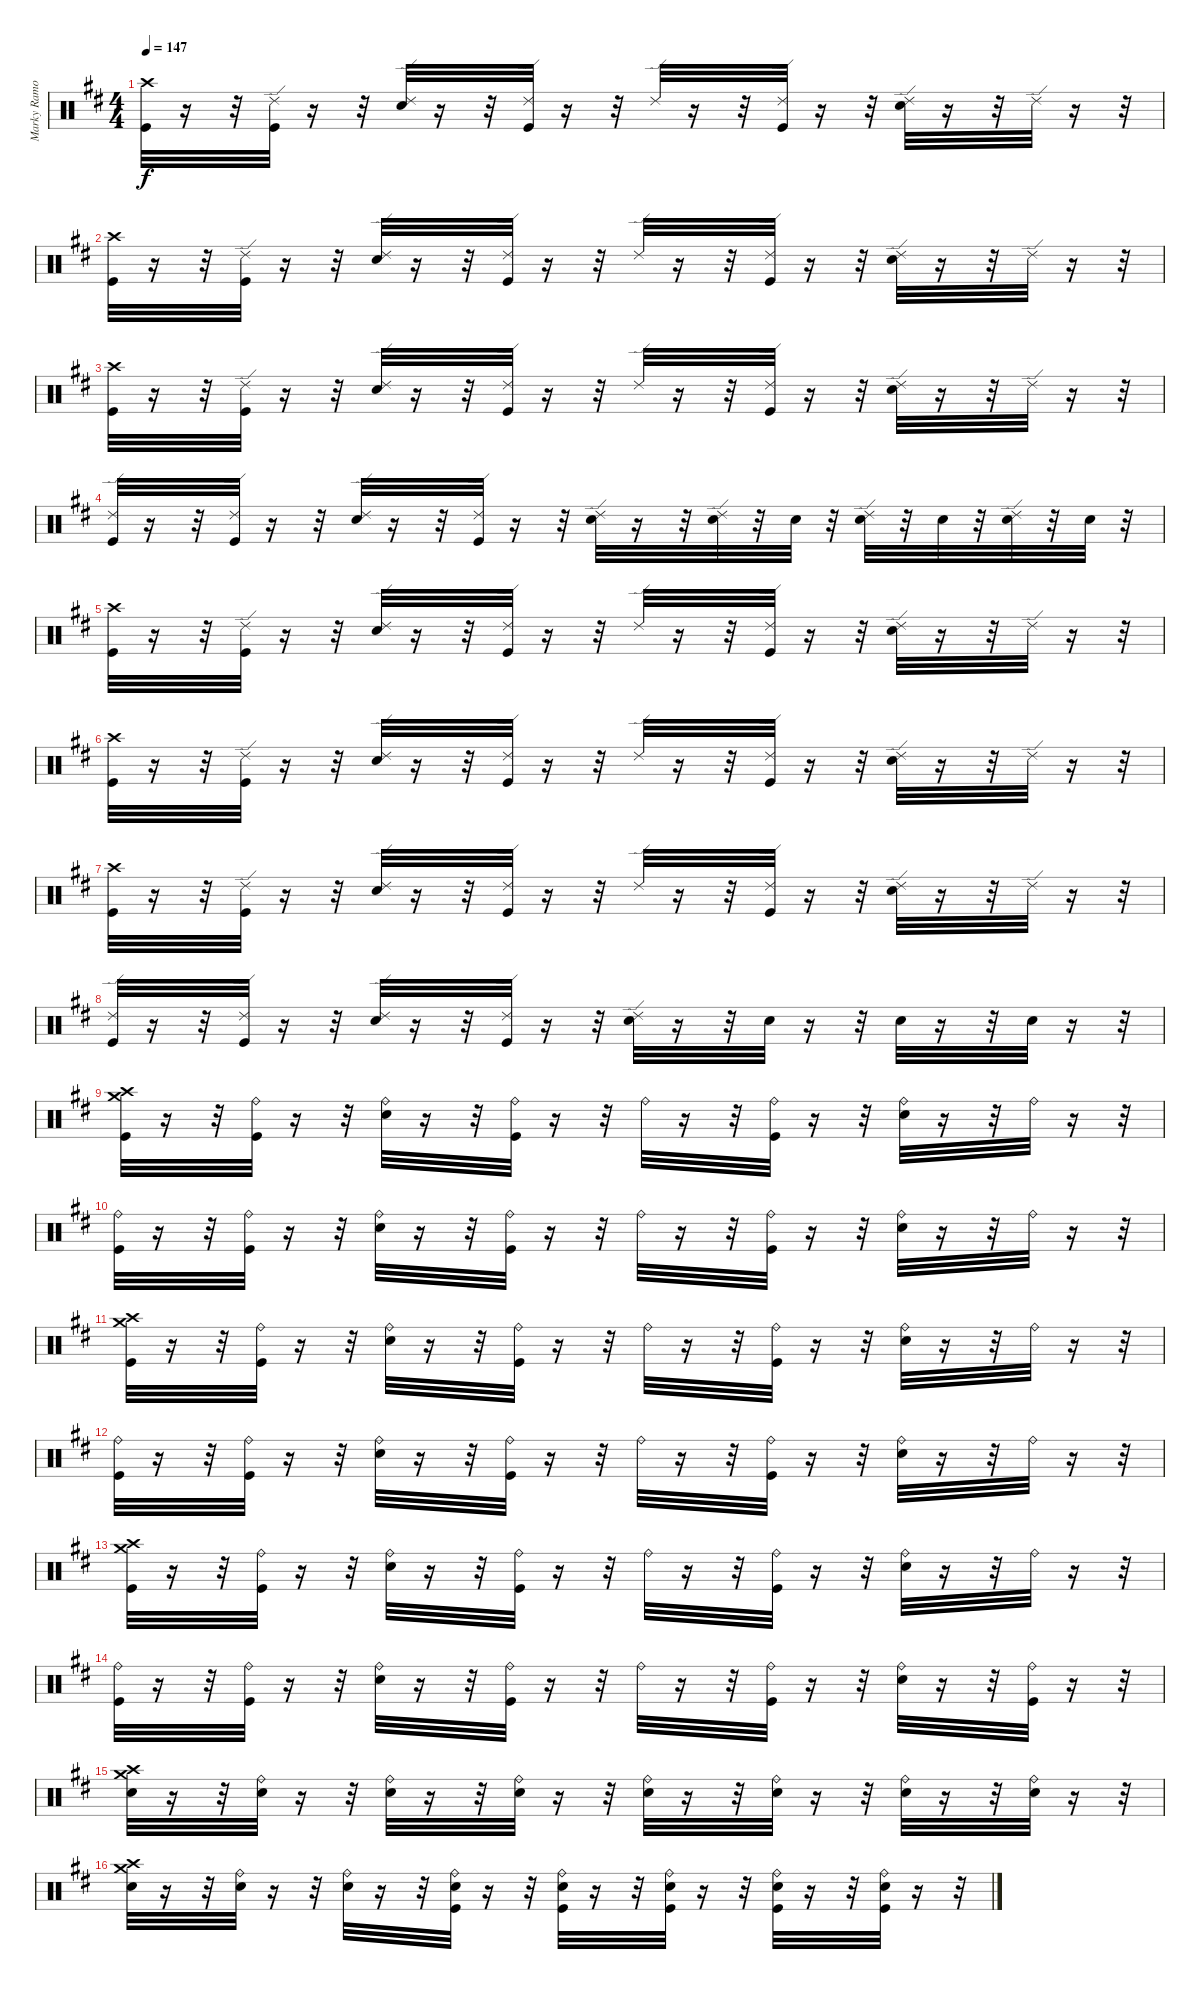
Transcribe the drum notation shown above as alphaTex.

\track ("Marky Ramone" "Marky Ramo") {instrument percussion}
\staff {score}
\articulation defaults
\ts (4 4)
\tempo 147
\clef neutral
\ks d
("Crash high (hit)" "Kick (hit)").32{dy f} r.16 r.32 ("Ride (edge) 2" "Kick (hit)").32 r.16 r.32 ("Ride (edge) 2" "Electric Snare (hit)").32 r.16 r.32 ("Ride (edge) 2" "Kick (hit)").32 r.16 r.32 "Ride (edge) 2".32 r.16 r.32 ("Ride (edge) 2" "Kick (hit)").32 r.16 r.32 ("Ride (edge) 2" "Electric Snare (hit)").32 r.16 r.32 "Ride (edge) 2".32 r.16 r.32 |
("Crash high (hit)" "Kick (hit)").32 r.16 r.32 ("Ride (edge) 2" "Kick (hit)").32 r.16 r.32 ("Electric Snare (hit)" "Ride (edge) 2").32 r.16 r.32 ("Kick (hit)" "Ride (edge) 2").32 r.16 r.32 "Ride (edge) 2".32 r.16 r.32 ("Kick (hit)" "Ride (edge) 2").32 r.16 r.32 ("Ride (edge) 2" "Electric Snare (hit)").32 r.16 r.32 "Ride (edge) 2".32 r.16 r.32 |
("Crash high (hit)" "Kick (hit)").32 r.16 r.32 ("Ride (edge) 2" "Kick (hit)").32 r.16 r.32 ("Ride (edge) 2" "Electric Snare (hit)").32 r.16 r.32 ("Ride (edge) 2" "Kick (hit)").32 r.16 r.32 "Ride (edge) 2".32 r.16 r.32 ("Ride (edge) 2" "Kick (hit)").32 r.16 r.32 ("Ride (edge) 2" "Electric Snare (hit)").32 r.16 r.32 "Ride (edge) 2".32 r.16 r.32 |
("Ride (edge) 2" "Kick (hit)").32 r.16 r.32 ("Ride (edge) 2" "Kick (hit)").32 r.16 r.32 ("Ride (edge) 2" "Electric Snare (hit)").32 r.16 r.32 ("Ride (edge) 2" "Kick (hit)").32 r.16 r.32 ("Electric Snare (hit)" "Ride (edge) 2").32 r.16 r.32 ("Electric Snare (hit)" "Ride (edge) 2").32 r.32 "Electric Snare (hit)".32 r.32 ("Ride (edge) 2" "Electric Snare (hit)").32 r.32 "Electric Snare (hit)".32 r.32 ("Electric Snare (hit)" "Ride (edge) 2").32 r.32 "Electric Snare (hit)".32 r.32 |
("Kick (hit)" "Crash high (hit)").32 r.16 r.32 ("Ride (edge) 2" "Kick (hit)").32 r.16 r.32 ("Ride (edge) 2" "Electric Snare (hit)").32 r.16 r.32 ("Ride (edge) 2" "Kick (hit)").32 r.16 r.32 "Ride (edge) 2".32 r.16 r.32 ("Ride (edge) 2" "Kick (hit)").32 r.16 r.32 ("Ride (edge) 2" "Electric Snare (hit)").32 r.16 r.32 "Ride (edge) 2".32 r.16 r.32 |
("Crash high (hit)" "Kick (hit)").32 r.16 r.32 ("Ride (edge) 2" "Kick (hit)").32 r.16 r.32 ("Ride (edge) 2" "Electric Snare (hit)").32 r.16 r.32 ("Ride (edge) 2" "Kick (hit)").32 r.16 r.32 "Ride (edge) 2".32 r.16 r.32 ("Ride (edge) 2" "Kick (hit)").32 r.16 r.32 ("Ride (edge) 2" "Electric Snare (hit)").32 r.16 r.32 "Ride (edge) 2".32 r.16 r.32 |
("Kick (hit)" "Crash high (hit)").32 r.16 r.32 ("Ride (edge) 2" "Kick (hit)").32 r.16 r.32 ("Ride (edge) 2" "Electric Snare (hit)").32 r.16 r.32 ("Ride (edge) 2" "Kick (hit)").32 r.16 r.32 "Ride (edge) 2".32 r.16 r.32 ("Ride (edge) 2" "Kick (hit)").32 r.16 r.32 ("Ride (edge) 2" "Electric Snare (hit)").32 r.16 r.32 "Ride (edge) 2".32 r.16 r.32 |
("Ride (edge) 2" "Kick (hit)").32 r.16 r.32 ("Ride (edge) 2" "Kick (hit)").32 r.16 r.32 ("Ride (edge) 2" "Electric Snare (hit)").32 r.16 r.32 ("Ride (edge) 2" "Kick (hit)").32 r.16 r.32 ("Electric Snare (hit)" "Ride (edge) 2").32 r.16 r.32 "Electric Snare (hit)".32 r.16 r.32 "Electric Snare (hit)".32 r.16 r.32 "Electric Snare (hit)".32 r.16 r.32 |
("Crash medium (hit)" "Kick (hit)" "Crash high (hit)").32 r.16 r.32 ("Kick (hit)" "Ride (bell)").32 r.16 r.32 ("Electric Snare (hit)" "Ride (bell)").32 r.16 r.32 ("Kick (hit)" "Ride (bell)").32 r.16 r.32 "Ride (bell)".32 r.16 r.32 ("Kick (hit)" "Ride (bell)").32 r.16 r.32 ("Electric Snare (hit)" "Ride (bell)").32 r.16 r.32 "Ride (bell)".32 r.16 r.32 |
("Ride (bell)" "Kick (hit)").32 r.16 r.32 ("Ride (bell)" "Kick (hit)").32 r.16 r.32 ("Ride (bell)" "Electric Snare (hit)").32 r.16 r.32 ("Ride (bell)" "Kick (hit)").32 r.16 r.32 "Ride (bell)".32 r.16 r.32 ("Ride (bell)" "Kick (hit)").32 r.16 r.32 ("Ride (bell)" "Electric Snare (hit)").32 r.16 r.32 "Ride (bell)".32 r.16 r.32 |
("Kick (hit)" "Crash medium (hit)" "Crash high (hit)").32 r.16 r.32 ("Kick (hit)" "Ride (bell)").32 r.16 r.32 ("Electric Snare (hit)" "Ride (bell)").32 r.16 r.32 ("Kick (hit)" "Ride (bell)").32 r.16 r.32 "Ride (bell)".32 r.16 r.32 ("Kick (hit)" "Ride (bell)").32 r.16 r.32 ("Electric Snare (hit)" "Ride (bell)").32 r.16 r.32 "Ride (bell)".32 r.16 r.32 |
("Ride (bell)" "Kick (hit)").32 r.16 r.32 ("Ride (bell)" "Kick (hit)").32 r.16 r.32 ("Ride (bell)" "Electric Snare (hit)").32 r.16 r.32 ("Kick (hit)" "Ride (bell)").32 r.16 r.32 "Ride (bell)".32 r.16 r.32 ("Kick (hit)" "Ride (bell)").32 r.16 r.32 ("Electric Snare (hit)" "Ride (bell)").32 r.16 r.32 "Ride (bell)".32 r.16 r.32 |
("Crash medium (hit)" "Kick (hit)" "Crash high (hit)").32 r.16 r.32 ("Kick (hit)" "Ride (bell)").32 r.16 r.32 ("Electric Snare (hit)" "Ride (bell)").32 r.16 r.32 ("Kick (hit)" "Ride (bell)").32 r.16 r.32 "Ride (bell)".32 r.16 r.32 ("Kick (hit)" "Ride (bell)").32 r.16 r.32 ("Electric Snare (hit)" "Ride (bell)").32 r.16 r.32 "Ride (bell)".32 r.16 r.32 |
("Ride (bell)" "Kick (hit)").32 r.16 r.32 ("Ride (bell)" "Kick (hit)").32 r.16 r.32 ("Ride (bell)" "Electric Snare (hit)").32 r.16 r.32 ("Ride (bell)" "Kick (hit)").32 r.16 r.32 "Ride (bell)".32 r.16 r.32 ("Ride (bell)" "Kick (hit)").32 r.16 r.32 ("Ride (bell)" "Electric Snare (hit)").32 r.16 r.32 ("Kick (hit)" "Ride (bell)").32 r.16 r.32 |
("Electric Snare (hit)" "Crash medium (hit)" "Crash high (hit)").32 r.16 r.32 ("Electric Snare (hit)" "Ride (bell)").32 r.16 r.32 ("Electric Snare (hit)" "Ride (bell)").32 r.16 r.32 ("Electric Snare (hit)" "Ride (bell)").32 r.16 r.32 ("Electric Snare (hit)" "Ride (bell)").32 r.16 r.32 ("Electric Snare (hit)" "Ride (bell)").32 r.16 r.32 ("Electric Snare (hit)" "Ride (bell)").32 r.16 r.32 ("Electric Snare (hit)" "Ride (bell)").32 r.16 r.32 |
("Electric Snare (hit)" "Crash high (hit)" "Crash medium (hit)").32 r.16 r.32 ("Electric Snare (hit)" "Ride (bell)").32 r.16 r.32 ("Ride (bell)" "Electric Snare (hit)").32 r.16 r.32 ("Electric Snare (hit)" "Kick (hit)" "Ride (bell)").32 r.16 r.32 ("Kick (hit)" "Electric Snare (hit)" "Ride (bell)").32 r.16 r.32 ("Electric Snare (hit)" "Kick (hit)" "Ride (bell)").32 r.16 r.32 ("Kick (hit)" "Electric Snare (hit)" "Ride (bell)").32 r.16 r.32 ("Kick (hit)" "Electric Snare (hit)" "Ride (bell)").32 r.16 r.32
